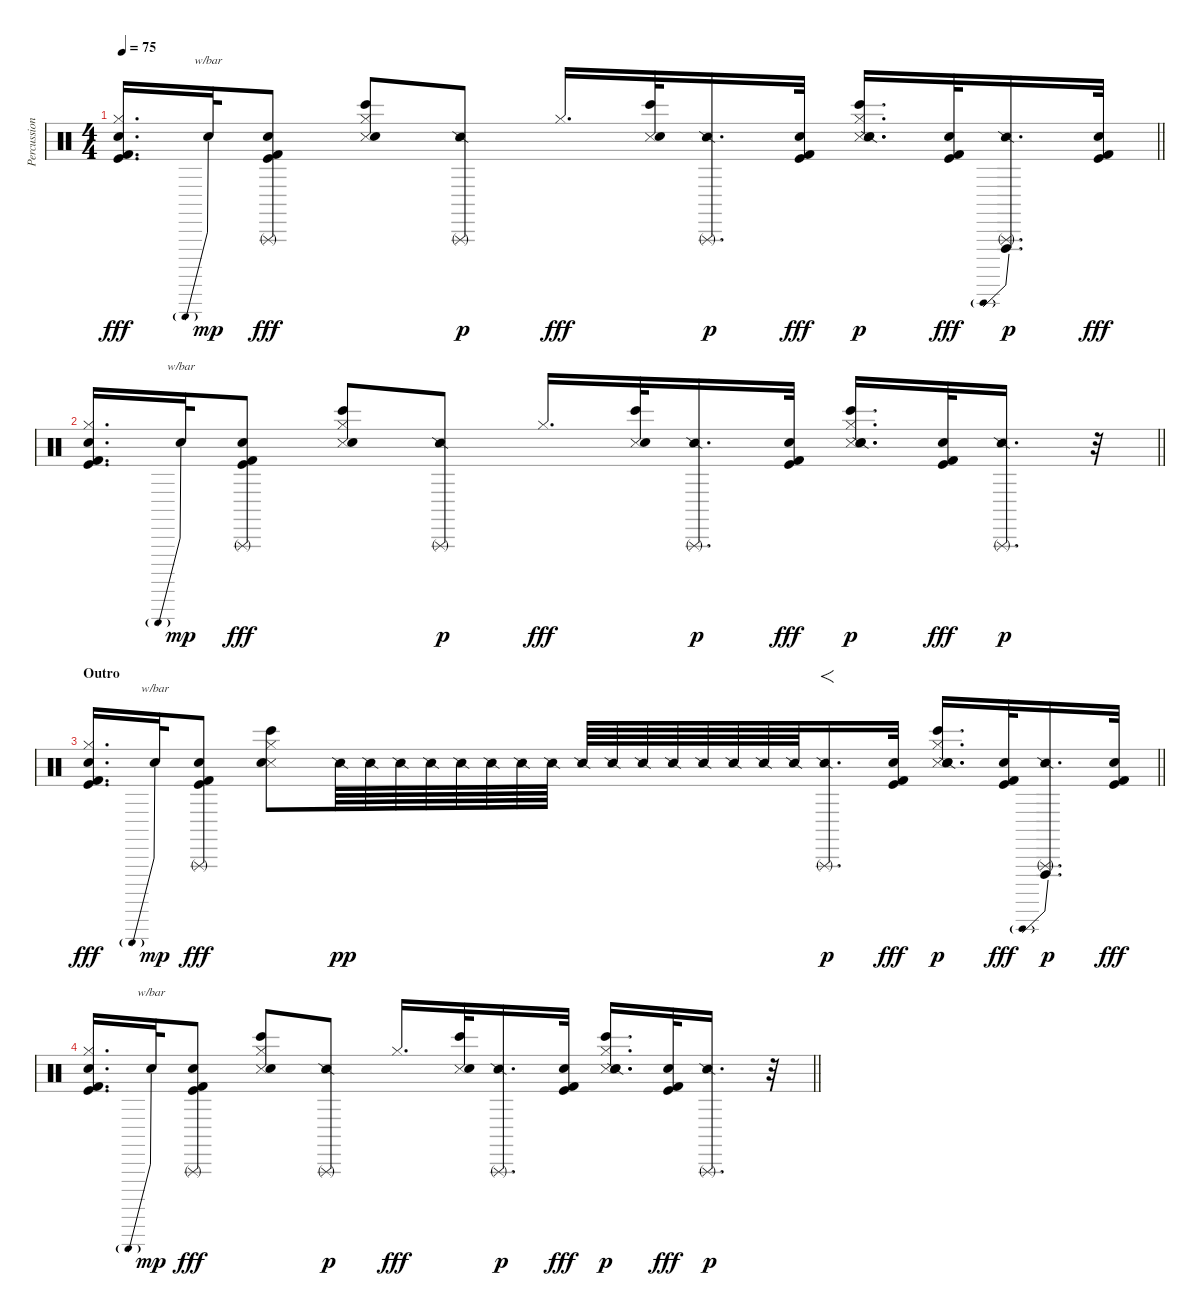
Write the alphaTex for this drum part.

\track ("Percussion" "Percussion") {instrument percussion}
\staff {score}
\articulation defaults
\ts (4 4)
\tempo 75
\clef neutral
\barLineRight lightlight
\ks c
("Hi-Hat (closed)" "Snare (hit) 2" "Kick (hit)" "Kick (hit) 2").16{d dy fff} "Hand Clap (hit)".32{tbe (predive default 0 24 60 24) dy mp} ("Triangle (rnute)" "Snare (hit) 2" "Kick (hit)" "Kick (hit) 2").8{dy fff} ("Hi-Hat (closed)" "Snare (side stick) 3" "Snare (hit) 2" "Bongo High (hit)").8 ("Triangle (rnute)" "Snare (side stick) 2").8{dy p} "Hi-Hat (closed)".16{d dy fff} ("Snare (side stick) 3" "Snare (hit) 2" "Bongo High (hit)").32 ("Triangle (rnute)" "Snare (side stick) 2").16{d dy p} ("Snare (hit) 2" "Kick (hit)" "Kick (hit) 2").32{dy fff} ("Hi-Hat (closed)" "Snare (side stick) 3" "Snare (hit) 2" "Bongo High (hit)" "Snare (side stick) 2").16{d dy p} ("Snare (hit) 2" "Kick (hit)" "Kick (hit) 2").32{dy fff} ("Triangle (rnute)" "Snare (side stick) 2" "Vibraslap (hit)"{be (prebend 0 12 60 12)}).16{d dy p} ("Snare (hit) 2" "Kick (hit)" "Kick (hit) 2").32{dy fff} |
\barLineRight lightlight
("Hi-Hat (closed)" "Snare (hit) 2" "Kick (hit)" "Kick (hit) 2").16{d} "Hand Clap (hit)".32{tbe (predive default 0 24 60 24) dy mp} ("Triangle (rnute)" "Snare (hit) 2" "Kick (hit)" "Kick (hit) 2").8{dy fff} ("Hi-Hat (closed)" "Snare (side stick) 3" "Snare (hit) 2" "Bongo High (hit)").8 ("Triangle (rnute)" "Snare (side stick) 2").8{dy p} "Hi-Hat (closed)".16{d dy fff} ("Snare (side stick) 3" "Snare (hit) 2" "Bongo High (hit)").32 ("Triangle (rnute)" "Snare (side stick) 2").16{d dy p} ("Snare (hit) 2" "Kick (hit)" "Kick (hit) 2").32{dy fff} ("Hi-Hat (closed)" "Snare (side stick) 3" "Snare (hit) 2" "Bongo High (hit)" "Snare (side stick) 2").16{d dy p} ("Snare (hit) 2" "Kick (hit)" "Kick (hit) 2").32{dy fff} ("Triangle (rnute)" "Snare (side stick) 2").16{d dy p} r.32 |
\section ("" "Outro")
\barLineRight lightlight
("Hi-Hat (closed)" "Snare (hit) 2" "Kick (hit)" "Kick (hit) 2").16{d dy fff} "Hand Clap (hit)".32{tbe (predive default 0 24 60 24) dy mp} ("Triangle (rnute)" "Snare (hit) 2" "Kick (hit)" "Kick (hit) 2").8{dy fff} ("Hi-Hat (closed)" "Snare (side stick) 3" "Snare (hit) 2" "Bongo High (hit)").8 "Snare (side stick) 2".64{dy pp} "Snare (side stick) 2".64 "Snare (side stick) 2".64 "Snare (side stick) 2".64 "Snare (side stick) 2".64 "Snare (side stick) 2".64 "Snare (side stick) 2".64 "Snare (side stick) 2".64 "Snare (side stick) 2".64 "Snare (side stick) 2".64 "Snare (side stick) 2".64 "Snare (side stick) 2".64 "Snare (side stick) 2".64 "Snare (side stick) 2".64 "Snare (side stick) 2".64 "Snare (side stick) 2".64 ("Triangle (rnute)" "Snare (side stick) 2").16{f d dy p} ("Snare (hit) 2" "Kick (hit)" "Kick (hit) 2").32{dy fff} ("Hi-Hat (closed)" "Snare (side stick) 3" "Snare (hit) 2" "Bongo High (hit)" "Snare (side stick) 2").16{d dy p} ("Snare (hit) 2" "Kick (hit)" "Kick (hit) 2").32{dy fff} ("Triangle (rnute)" "Snare (side stick) 2" "Vibraslap (hit)"{be (prebend 0 12 60 12)}).16{d dy p} ("Snare (hit) 2" "Kick (hit)" "Kick (hit) 2").32{dy fff} |
\barLineRight lightlight
("Hi-Hat (closed)" "Snare (hit) 2" "Kick (hit)" "Kick (hit) 2").16{d} "Hand Clap (hit)".32{tbe (predive default 0 24 60 24) dy mp} ("Triangle (rnute)" "Snare (hit) 2" "Kick (hit)" "Kick (hit) 2").8{dy fff} ("Hi-Hat (closed)" "Snare (side stick) 3" "Snare (hit) 2" "Bongo High (hit)").8 ("Triangle (rnute)" "Snare (side stick) 2").8{dy p} "Hi-Hat (closed)".16{d dy fff} ("Snare (side stick) 3" "Snare (hit) 2" "Bongo High (hit)").32 ("Triangle (rnute)" "Snare (side stick) 2").16{d dy p} ("Snare (hit) 2" "Kick (hit)" "Kick (hit) 2").32{dy fff} ("Hi-Hat (closed)" "Snare (side stick) 3" "Snare (hit) 2" "Bongo High (hit)" "Snare (side stick) 2").16{d dy p} ("Snare (hit) 2" "Kick (hit)" "Kick (hit) 2").32{dy fff} ("Triangle (rnute)" "Snare (side stick) 2").16{d dy p} r.32
